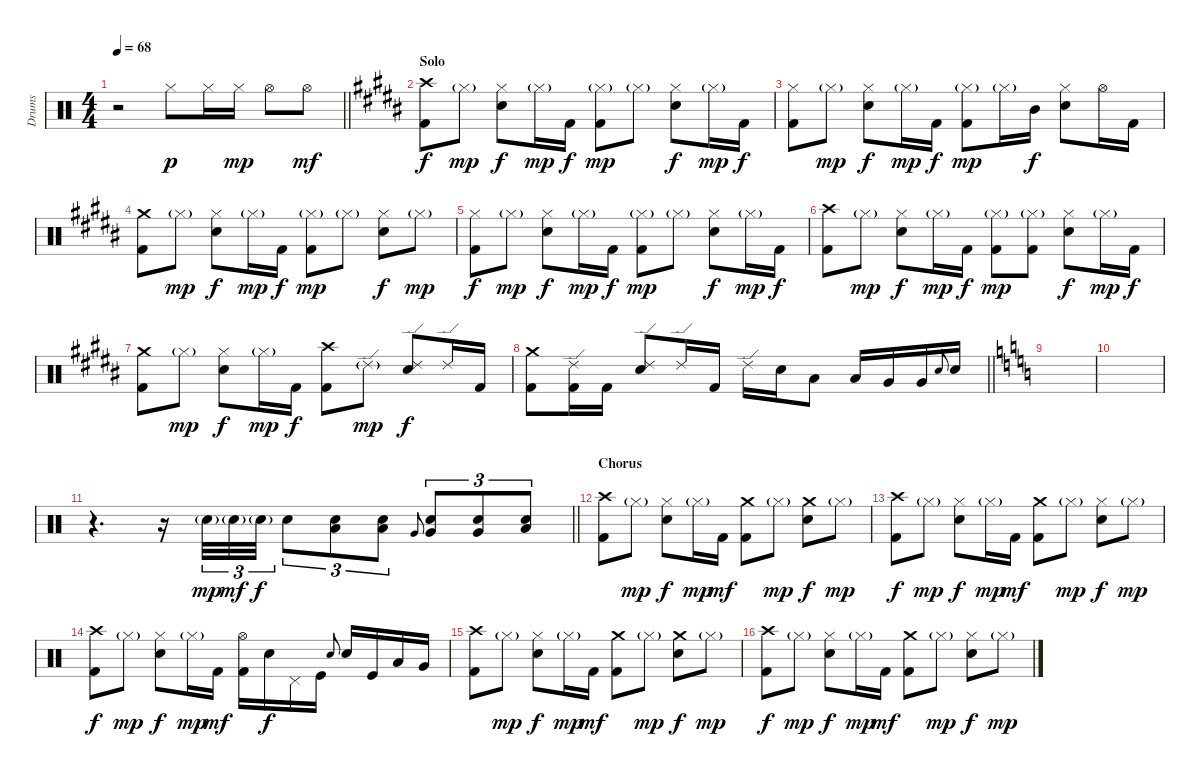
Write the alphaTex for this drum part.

\track ("Drums" "Drums") {instrument percussion}
\staff {score}
\articulation defaults
\ts (4 4)
\tempo 68
\clef neutral
\barLineRight lightlight
\ks aminor
r.2{dy f} "Hi-Hat (closed)".8{dy p} "Hi-Hat (closed)".16 "Hi-Hat (closed)".16{dy mp} "Hi-Hat (open)".8 "Hi-Hat (open)".8{dy mf} |
\section ("" "Solo")
\ks g#minor
("Crash high (hit)" "Kick (hit) 2").8{dy f} "Hi-Hat (closed)"{g}.8{dy mp} ("Hi-Hat (closed)" "Snare (hit) 2").8{dy f} "Hi-Hat (closed)"{g}.16{dy mp} "Kick (hit) 2".16{dy f} ("Hi-Hat (closed)"{g} "Kick (hit) 2").8{dy mp} "Hi-Hat (closed)"{g}.8 ("Hi-Hat (closed)" "Snare (hit) 2").8{dy f} "Hi-Hat (closed)"{g}.16{dy mp} "Kick (hit) 2".16{dy f} |
("Hi-Hat (closed)" "Kick (hit) 2").8 "Hi-Hat (closed)"{g}.8{dy mp} ("Hi-Hat (closed)" "Snare (hit) 2").8{dy f} "Hi-Hat (closed)"{g}.16{dy mp} "Kick (hit) 2".16{dy f} ("Hi-Hat (closed)"{g} "Kick (hit) 2").8{dy mp} "Hi-Hat (closed)"{g}.16 "Mid Tom (hit)".16{dy f} ("Hi-Hat (closed)" "Snare (hit) 2").8 "Hi-Hat (open)".16 "Kick (hit) 2".16 |
("Crash medium (hit)" "Kick (hit) 2").8 "Hi-Hat (closed)"{g}.8{dy mp} ("Hi-Hat (closed)" "Snare (hit) 2").8{dy f} "Hi-Hat (closed)"{g}.16{dy mp} "Kick (hit) 2".16{dy f} ("Hi-Hat (closed)"{g} "Kick (hit) 2").8{dy mp} "Hi-Hat (closed)"{g}.8 ("Hi-Hat (closed)" "Snare (hit) 2").8{dy f} "Hi-Hat (closed)"{g}.8{dy mp} |
("Hi-Hat (closed)" "Kick (hit) 2").8{dy f} "Hi-Hat (closed)"{g}.8{dy mp} ("Hi-Hat (closed)" "Snare (hit) 2").8{dy f} "Hi-Hat (closed)"{g}.16{dy mp} "Kick (hit) 2".16{dy f} ("Hi-Hat (closed)"{g} "Kick (hit) 2").8{dy mp} "Hi-Hat (closed)"{g}.8 ("Hi-Hat (closed)" "Snare (hit) 2").8{dy f} "Hi-Hat (closed)"{g}.16{dy mp} "Kick (hit) 2".16{dy f} |
("Crash high (hit)" "Kick (hit) 2").8 "Hi-Hat (closed)"{g}.8{dy mp} ("Hi-Hat (closed)" "Snare (hit) 2").8{dy f} "Hi-Hat (closed)"{g}.16{dy mp} "Kick (hit) 2".16{dy f} ("Hi-Hat (closed)"{g} "Kick (hit) 2").8{dy mp} ("Hi-Hat (closed)"{g} "Kick (hit) 2").8 ("Hi-Hat (closed)" "Snare (hit) 2").8{dy f} "Hi-Hat (closed)"{g}.16{dy mp} "Kick (hit) 2".16{dy f} |
("Crash medium (hit)" "Kick (hit) 2").8 "Hi-Hat (closed)"{g}.8{dy mp} ("Hi-Hat (closed)" "Snare (hit) 2").8{dy f} "Hi-Hat (closed)"{g}.16{dy mp} "Kick (hit) 2".16{dy f} ("Crash high (hit)" "Kick (hit) 2").8 "Ride (edge) 2"{g}.8{dy mp} ("Ride (edge) 2" "Snare (hit) 2").8{dy f} "Ride (edge) 2".16 "Kick (hit) 2".16 |
\barLineRight lightlight
("Crash medium (hit)" "Kick (hit) 2").8 ("Ride (edge) 2" "Kick (hit) 2").16 "Kick (hit) 2".16 ("Ride (edge) 2" "Snare (hit) 2").8 "Ride (edge) 2".16 "Kick (hit) 2".16 "Ride (edge) 2".16 "Snare (hit) 2".16 "Low Tom (hit)".8 "Low Tom (hit)".16 "Very Low Tom (hit)".16 "Very Low Tom (hit)".16 "Snare (hit) 2".8{gr onbeat} "Snare (hit) 2".16 |
\ks aminor
|
|
\barLineRight lightlight
r.4{d} r.16 "Snare (hit) 2"{g}.32{tu (3 2) dy mp} "Snare (hit) 2"{g}.32{tu (3 2) dy mf} "Snare (hit) 2"{g}.32{tu (3 2) dy f} "Snare (hit) 2".8{tu (3 2)} ("Low Tom (hit)" "Snare (hit) 2").8{tu (3 2)} ("Low Tom (hit)" "Snare (hit) 2").8{tu (3 2)} "Very Low Tom (hit)".8{gr onbeat} ("Very Low Tom (hit)" "Snare (hit) 2").8{tu (3 2)} ("Very Low Tom (hit)" "Snare (hit) 2").8{tu (3 2)} ("Low Floor Tom (hit)" "Snare (hit) 2").8{tu (3 2)} |
\section ("" "Chorus")
("Crash high (hit)" "Kick (hit) 2").8 "Hi-Hat (closed)"{g}.8{dy mp} ("Hi-Hat (closed)" "Snare (hit) 2").8{dy f} "Hi-Hat (closed)"{g}.16{dy mp} "Kick (hit) 2".16{dy mf} ("Crash medium (hit)" "Kick (hit) 2").8 "Hi-Hat (closed)"{g}.8{dy mp} ("Crash medium (hit)" "Snare (hit) 2").8{dy f} "Hi-Hat (closed)"{g}.8{dy mp} |
("Crash high (hit)" "Kick (hit) 2").8{dy f} "Hi-Hat (closed)"{g}.8{dy mp} ("Hi-Hat (closed)" "Snare (hit) 2").8{dy f} "Hi-Hat (closed)"{g}.16{dy mp} "Kick (hit) 2".16{dy mf} ("Crash medium (hit)" "Kick (hit) 2").8 "Hi-Hat (closed)"{g}.8{dy mp} ("Hi-Hat (closed)" "Snare (hit) 2").8{dy f} "Hi-Hat (closed)"{g}.8{dy mp} |
("Crash high (hit)" "Kick (hit) 2").8{dy f} "Hi-Hat (closed)"{g}.8{dy mp} ("Hi-Hat (closed)" "Snare (hit) 2").8{dy f} "Hi-Hat (closed)"{g}.16{dy mp} "Kick (hit) 2".16{dy mf} ("Hi-Hat (open)" "Kick (hit) 2").16 "Snare (hit) 2".16{dy f} "Pedal Hi-Hat (hit)".16 "Kick (hit)".16 "Snare (hit) 2".8{gr onbeat} "Snare (hit) 2".16 "Kick (hit)".16 "Low Tom (hit)".16 "Very Low Tom (hit)".16 |
("Crash high (hit)" "Kick (hit) 2").8 "Hi-Hat (closed)"{g}.8{dy mp} ("Hi-Hat (closed)" "Snare (hit) 2").8{dy f} "Hi-Hat (closed)"{g}.16{dy mp} "Kick (hit) 2".16{dy mf} ("Crash medium (hit)" "Kick (hit) 2").8 "Hi-Hat (closed)"{g}.8{dy mp} ("Crash medium (hit)" "Snare (hit) 2").8{dy f} "Hi-Hat (closed)"{g}.8{dy mp} |
("Crash high (hit)" "Kick (hit) 2").8{dy f} "Hi-Hat (closed)"{g}.8{dy mp} ("Hi-Hat (closed)" "Snare (hit) 2").8{dy f} "Hi-Hat (closed)"{g}.16{dy mp} "Kick (hit) 2".16{dy mf} ("Crash medium (hit)" "Kick (hit) 2").8 "Hi-Hat (closed)"{g}.8{dy mp} ("Hi-Hat (closed)" "Snare (hit) 2").8{dy f} "Hi-Hat (closed)"{g}.8{dy mp}
